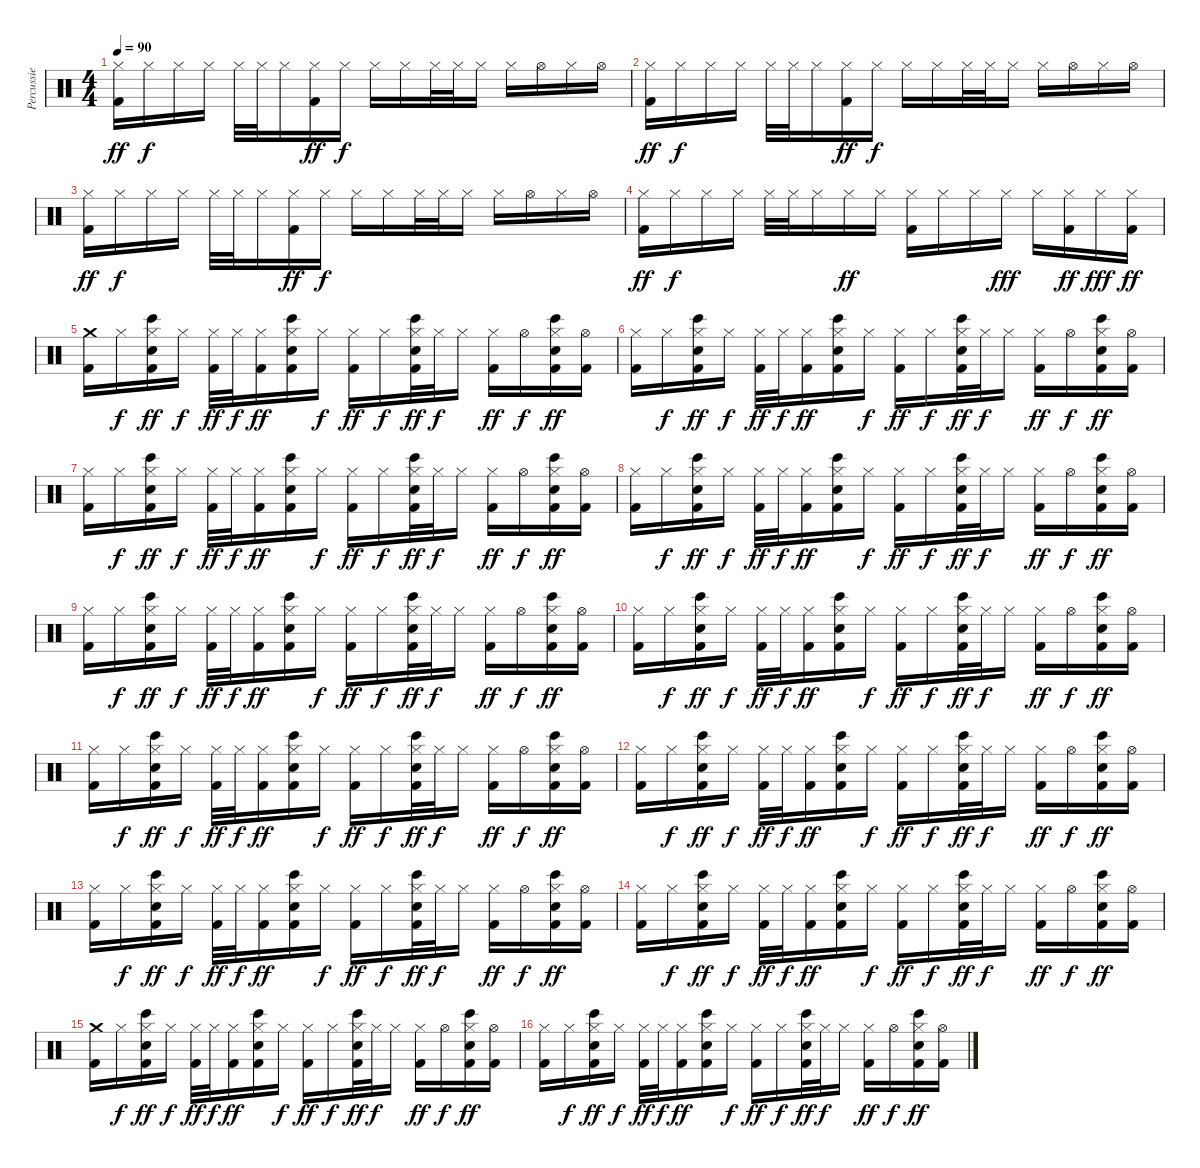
\track ("Percussie" "Percussie") {instrument percussion}
\staff {score}
\articulation defaults
\ts (4 4)
\tempo 90
\clef neutral
\ks c
("Hi-Hat (closed)" "Kick (hit) 2").16{dy ff} "Hi-Hat (closed)".16{dy f} "Hi-Hat (closed)".16 "Hi-Hat (closed)".16 "Hi-Hat (closed)".32 "Hi-Hat (closed)".32 "Hi-Hat (closed)".16 ("Hi-Hat (closed)" "Kick (hit) 2").16{dy ff} "Hi-Hat (closed)".16{dy f} "Hi-Hat (closed)".16 "Hi-Hat (closed)".16 "Hi-Hat (closed)".32 "Hi-Hat (closed)".32 "Hi-Hat (closed)".16 "Hi-Hat (closed)".16 "Hi-Hat (open)".16 "Hi-Hat (closed)".16 "Hi-Hat (open)".16 |
("Hi-Hat (closed)" "Kick (hit) 2").16{dy ff} "Hi-Hat (closed)".16{dy f} "Hi-Hat (closed)".16 "Hi-Hat (closed)".16 "Hi-Hat (closed)".32 "Hi-Hat (closed)".32 "Hi-Hat (closed)".16 ("Hi-Hat (closed)" "Kick (hit) 2").16{dy ff} "Hi-Hat (closed)".16{dy f} "Hi-Hat (closed)".16 "Hi-Hat (closed)".16 "Hi-Hat (closed)".32 "Hi-Hat (closed)".32 "Hi-Hat (closed)".16 "Hi-Hat (closed)".16 "Hi-Hat (open)".16 "Hi-Hat (closed)".16 "Hi-Hat (open)".16 |
("Hi-Hat (closed)" "Kick (hit) 2").16{dy ff} "Hi-Hat (closed)".16{dy f} "Hi-Hat (closed)".16 "Hi-Hat (closed)".16 "Hi-Hat (closed)".32 "Hi-Hat (closed)".32 "Hi-Hat (closed)".16 ("Hi-Hat (closed)" "Kick (hit) 2").16{dy ff} "Hi-Hat (closed)".16{dy f} "Hi-Hat (closed)".16 "Hi-Hat (closed)".16 "Hi-Hat (closed)".32 "Hi-Hat (closed)".32 "Hi-Hat (closed)".16 "Hi-Hat (closed)".16 "Hi-Hat (open)".16 "Hi-Hat (closed)".16 "Hi-Hat (open)".16 |
("Hi-Hat (closed)" "Kick (hit) 2").16{dy ff} "Hi-Hat (closed)".16{dy f} "Hi-Hat (closed)".16 "Hi-Hat (closed)".16 "Hi-Hat (closed)".32 "Hi-Hat (closed)".32 "Hi-Hat (closed)".16 "Hi-Hat (closed)".16{dy ff} "Hi-Hat (closed)".16 ("Hi-Hat (closed)" "Kick (hit) 2").16 "Hi-Hat (closed)".16 "Hi-Hat (closed)".16 "Hi-Hat (closed)".16{dy fff} "Hi-Hat (closed)".16{volume 16} ("Hi-Hat (closed)" "Kick (hit) 2").16{dy ff} "Hi-Hat (closed)".16{dy fff} ("Hi-Hat (closed)" "Kick (hit) 2").16{dy ff} |
("Crash medium (hit)" "Kick (hit) 2").16{volume 14} "Hi-Hat (closed)".16{dy f} ("Hi-Hat (closed)" "Electric Snare (hit)" "Bongo High (hit)" "Kick (hit) 2").16{dy ff} "Hi-Hat (closed)".16{dy f} ("Hi-Hat (closed)" "Kick (hit) 2").32{dy ff} "Hi-Hat (closed)".32{dy f} ("Hi-Hat (closed)" "Kick (hit) 2").16{dy ff} ("Hi-Hat (closed)" "Electric Snare (hit)" "Bongo High (hit)" "Kick (hit) 2").16 "Hi-Hat (closed)".16{dy f} ("Hi-Hat (closed)" "Kick (hit) 2").16{dy ff} "Hi-Hat (closed)".16{dy f} ("Hi-Hat (closed)" "Electric Snare (hit)" "Bongo High (hit)" "Kick (hit) 2").32{dy ff} "Hi-Hat (closed)".32{dy f} "Hi-Hat (closed)".16 ("Hi-Hat (closed)" "Kick (hit) 2").16{dy ff} "Hi-Hat (open)".16{dy f} ("Hi-Hat (closed)" "Electric Snare (hit)" "Bongo High (hit)" "Kick (hit) 2").16{dy ff} ("Hi-Hat (open)" "Kick (hit) 2").16 |
("Hi-Hat (closed)" "Kick (hit) 2").16 "Hi-Hat (closed)".16{dy f} ("Hi-Hat (closed)" "Electric Snare (hit)" "Bongo High (hit)" "Kick (hit) 2").16{dy ff} "Hi-Hat (closed)".16{dy f} ("Hi-Hat (closed)" "Kick (hit) 2").32{dy ff} "Hi-Hat (closed)".32{dy f} ("Hi-Hat (closed)" "Kick (hit) 2").16{dy ff} ("Hi-Hat (closed)" "Electric Snare (hit)" "Bongo High (hit)" "Kick (hit) 2").16 "Hi-Hat (closed)".16{dy f} ("Hi-Hat (closed)" "Kick (hit) 2").16{dy ff} "Hi-Hat (closed)".16{dy f} ("Hi-Hat (closed)" "Electric Snare (hit)" "Bongo High (hit)" "Kick (hit) 2").32{dy ff} "Hi-Hat (closed)".32{dy f} "Hi-Hat (closed)".16 ("Hi-Hat (closed)" "Kick (hit) 2").16{dy ff} "Hi-Hat (open)".16{dy f} ("Hi-Hat (closed)" "Electric Snare (hit)" "Bongo High (hit)" "Kick (hit) 2").16{dy ff} ("Hi-Hat (open)" "Kick (hit) 2").16 |
("Hi-Hat (closed)" "Kick (hit) 2").16 "Hi-Hat (closed)".16{dy f} ("Hi-Hat (closed)" "Electric Snare (hit)" "Bongo High (hit)" "Kick (hit) 2").16{dy ff} "Hi-Hat (closed)".16{dy f} ("Hi-Hat (closed)" "Kick (hit) 2").32{dy ff} "Hi-Hat (closed)".32{dy f} ("Hi-Hat (closed)" "Kick (hit) 2").16{dy ff} ("Hi-Hat (closed)" "Electric Snare (hit)" "Bongo High (hit)" "Kick (hit) 2").16 "Hi-Hat (closed)".16{dy f} ("Hi-Hat (closed)" "Kick (hit) 2").16{dy ff} "Hi-Hat (closed)".16{dy f} ("Hi-Hat (closed)" "Electric Snare (hit)" "Bongo High (hit)" "Kick (hit) 2").32{dy ff} "Hi-Hat (closed)".32{dy f} "Hi-Hat (closed)".16 ("Hi-Hat (closed)" "Kick (hit) 2").16{dy ff} "Hi-Hat (open)".16{dy f} ("Hi-Hat (closed)" "Electric Snare (hit)" "Bongo High (hit)" "Kick (hit) 2").16{dy ff} ("Hi-Hat (open)" "Kick (hit) 2").16 |
("Hi-Hat (closed)" "Kick (hit) 2").16 "Hi-Hat (closed)".16{dy f} ("Hi-Hat (closed)" "Electric Snare (hit)" "Bongo High (hit)" "Kick (hit) 2").16{dy ff} "Hi-Hat (closed)".16{dy f} ("Hi-Hat (closed)" "Kick (hit) 2").32{dy ff} "Hi-Hat (closed)".32{dy f} ("Hi-Hat (closed)" "Kick (hit) 2").16{dy ff} ("Hi-Hat (closed)" "Electric Snare (hit)" "Bongo High (hit)" "Kick (hit) 2").16 "Hi-Hat (closed)".16{dy f} ("Hi-Hat (closed)" "Kick (hit) 2").16{dy ff} "Hi-Hat (closed)".16{dy f} ("Hi-Hat (closed)" "Electric Snare (hit)" "Bongo High (hit)" "Kick (hit) 2").32{dy ff} "Hi-Hat (closed)".32{dy f} "Hi-Hat (closed)".16 ("Hi-Hat (closed)" "Kick (hit) 2").16{dy ff} "Hi-Hat (open)".16{dy f} ("Hi-Hat (closed)" "Electric Snare (hit)" "Bongo High (hit)" "Kick (hit) 2").16{dy ff} ("Hi-Hat (open)" "Kick (hit) 2").16 |
("Hi-Hat (closed)" "Kick (hit) 2").16 "Hi-Hat (closed)".16{dy f} ("Hi-Hat (closed)" "Electric Snare (hit)" "Bongo High (hit)" "Kick (hit) 2").16{dy ff} "Hi-Hat (closed)".16{dy f} ("Hi-Hat (closed)" "Kick (hit) 2").32{dy ff} "Hi-Hat (closed)".32{dy f} ("Hi-Hat (closed)" "Kick (hit) 2").16{dy ff} ("Hi-Hat (closed)" "Electric Snare (hit)" "Bongo High (hit)" "Kick (hit) 2").16 "Hi-Hat (closed)".16{dy f} ("Hi-Hat (closed)" "Kick (hit) 2").16{dy ff} "Hi-Hat (closed)".16{dy f} ("Hi-Hat (closed)" "Electric Snare (hit)" "Bongo High (hit)" "Kick (hit) 2").32{dy ff} "Hi-Hat (closed)".32{dy f} "Hi-Hat (closed)".16 ("Hi-Hat (closed)" "Kick (hit) 2").16{dy ff} "Hi-Hat (open)".16{dy f} ("Hi-Hat (closed)" "Electric Snare (hit)" "Bongo High (hit)" "Kick (hit) 2").16{dy ff} ("Hi-Hat (open)" "Kick (hit) 2").16 |
("Hi-Hat (closed)" "Kick (hit) 2").16 "Hi-Hat (closed)".16{dy f} ("Hi-Hat (closed)" "Electric Snare (hit)" "Bongo High (hit)" "Kick (hit) 2").16{dy ff} "Hi-Hat (closed)".16{dy f} ("Hi-Hat (closed)" "Kick (hit) 2").32{dy ff} "Hi-Hat (closed)".32{dy f} ("Hi-Hat (closed)" "Kick (hit) 2").16{dy ff} ("Hi-Hat (closed)" "Electric Snare (hit)" "Bongo High (hit)" "Kick (hit) 2").16 "Hi-Hat (closed)".16{dy f} ("Hi-Hat (closed)" "Kick (hit) 2").16{dy ff} "Hi-Hat (closed)".16{dy f} ("Hi-Hat (closed)" "Electric Snare (hit)" "Bongo High (hit)" "Kick (hit) 2").32{dy ff} "Hi-Hat (closed)".32{dy f} "Hi-Hat (closed)".16 ("Hi-Hat (closed)" "Kick (hit) 2").16{dy ff} "Hi-Hat (open)".16{dy f} ("Hi-Hat (closed)" "Electric Snare (hit)" "Bongo High (hit)" "Kick (hit) 2").16{dy ff} ("Hi-Hat (open)" "Kick (hit) 2").16 |
("Hi-Hat (closed)" "Kick (hit) 2").16 "Hi-Hat (closed)".16{dy f} ("Hi-Hat (closed)" "Electric Snare (hit)" "Bongo High (hit)" "Kick (hit) 2").16{dy ff} "Hi-Hat (closed)".16{dy f} ("Hi-Hat (closed)" "Kick (hit) 2").32{dy ff} "Hi-Hat (closed)".32{dy f} ("Hi-Hat (closed)" "Kick (hit) 2").16{dy ff} ("Hi-Hat (closed)" "Electric Snare (hit)" "Bongo High (hit)" "Kick (hit) 2").16 "Hi-Hat (closed)".16{dy f} ("Hi-Hat (closed)" "Kick (hit) 2").16{dy ff} "Hi-Hat (closed)".16{dy f} ("Hi-Hat (closed)" "Electric Snare (hit)" "Bongo High (hit)" "Kick (hit) 2").32{dy ff} "Hi-Hat (closed)".32{dy f} "Hi-Hat (closed)".16 ("Hi-Hat (closed)" "Kick (hit) 2").16{dy ff} "Hi-Hat (open)".16{dy f} ("Hi-Hat (closed)" "Electric Snare (hit)" "Bongo High (hit)" "Kick (hit) 2").16{dy ff} ("Hi-Hat (open)" "Kick (hit) 2").16 |
("Hi-Hat (closed)" "Kick (hit) 2").16 "Hi-Hat (closed)".16{dy f} ("Hi-Hat (closed)" "Electric Snare (hit)" "Bongo High (hit)" "Kick (hit) 2").16{dy ff} "Hi-Hat (closed)".16{dy f} ("Hi-Hat (closed)" "Kick (hit) 2").32{dy ff} "Hi-Hat (closed)".32{dy f} ("Hi-Hat (closed)" "Kick (hit) 2").16{dy ff} ("Hi-Hat (closed)" "Electric Snare (hit)" "Bongo High (hit)" "Kick (hit) 2").16 "Hi-Hat (closed)".16{dy f} ("Hi-Hat (closed)" "Kick (hit) 2").16{dy ff} "Hi-Hat (closed)".16{dy f} ("Hi-Hat (closed)" "Electric Snare (hit)" "Bongo High (hit)" "Kick (hit) 2").32{dy ff} "Hi-Hat (closed)".32{dy f} "Hi-Hat (closed)".16 ("Hi-Hat (closed)" "Kick (hit) 2").16{dy ff} "Hi-Hat (open)".16{dy f} ("Hi-Hat (closed)" "Electric Snare (hit)" "Bongo High (hit)" "Kick (hit) 2").16{dy ff} ("Hi-Hat (open)" "Kick (hit) 2").16 |
("Hi-Hat (closed)" "Kick (hit) 2").16 "Hi-Hat (closed)".16{dy f} ("Hi-Hat (closed)" "Electric Snare (hit)" "Bongo High (hit)" "Kick (hit) 2").16{dy ff} "Hi-Hat (closed)".16{dy f} ("Hi-Hat (closed)" "Kick (hit) 2").32{dy ff} "Hi-Hat (closed)".32{dy f} ("Hi-Hat (closed)" "Kick (hit) 2").16{dy ff} ("Hi-Hat (closed)" "Electric Snare (hit)" "Bongo High (hit)" "Kick (hit) 2").16 "Hi-Hat (closed)".16{dy f} ("Hi-Hat (closed)" "Kick (hit) 2").16{dy ff} "Hi-Hat (closed)".16{dy f} ("Hi-Hat (closed)" "Electric Snare (hit)" "Bongo High (hit)" "Kick (hit) 2").32{dy ff} "Hi-Hat (closed)".32{dy f} "Hi-Hat (closed)".16 ("Hi-Hat (closed)" "Kick (hit) 2").16{dy ff} "Hi-Hat (open)".16{dy f} ("Hi-Hat (closed)" "Electric Snare (hit)" "Bongo High (hit)" "Kick (hit) 2").16{dy ff} ("Hi-Hat (open)" "Kick (hit) 2").16 |
("Hi-Hat (closed)" "Kick (hit) 2").16 "Hi-Hat (closed)".16{dy f} ("Hi-Hat (closed)" "Electric Snare (hit)" "Bongo High (hit)" "Kick (hit) 2").16{dy ff} "Hi-Hat (closed)".16{dy f} ("Hi-Hat (closed)" "Kick (hit) 2").32{dy ff} "Hi-Hat (closed)".32{dy f} ("Hi-Hat (closed)" "Kick (hit) 2").16{dy ff} ("Hi-Hat (closed)" "Electric Snare (hit)" "Bongo High (hit)" "Kick (hit) 2").16 "Hi-Hat (closed)".16{dy f} ("Hi-Hat (closed)" "Kick (hit) 2").16{dy ff} "Hi-Hat (closed)".16{dy f} ("Hi-Hat (closed)" "Electric Snare (hit)" "Bongo High (hit)" "Kick (hit) 2").32{dy ff} "Hi-Hat (closed)".32{dy f} "Hi-Hat (closed)".16 ("Hi-Hat (closed)" "Kick (hit) 2").16{dy ff} "Hi-Hat (open)".16{dy f} ("Hi-Hat (closed)" "Electric Snare (hit)" "Bongo High (hit)" "Kick (hit) 2").16{dy ff} ("Hi-Hat (open)" "Kick (hit) 2").16 |
("Crash medium (hit)" "Kick (hit) 2").16{volume 14} "Hi-Hat (closed)".16{dy f} ("Hi-Hat (closed)" "Electric Snare (hit)" "Bongo High (hit)" "Kick (hit) 2").16{dy ff} "Hi-Hat (closed)".16{dy f} ("Hi-Hat (closed)" "Kick (hit) 2").32{dy ff} "Hi-Hat (closed)".32{dy f} ("Hi-Hat (closed)" "Kick (hit) 2").16{dy ff} ("Hi-Hat (closed)" "Electric Snare (hit)" "Bongo High (hit)" "Kick (hit) 2").16 "Hi-Hat (closed)".16{dy f} ("Hi-Hat (closed)" "Kick (hit) 2").16{dy ff} "Hi-Hat (closed)".16{dy f} ("Hi-Hat (closed)" "Electric Snare (hit)" "Bongo High (hit)" "Kick (hit) 2").32{dy ff} "Hi-Hat (closed)".32{dy f} "Hi-Hat (closed)".16 ("Hi-Hat (closed)" "Kick (hit) 2").16{dy ff} "Hi-Hat (open)".16{dy f} ("Hi-Hat (closed)" "Electric Snare (hit)" "Bongo High (hit)" "Kick (hit) 2").16{dy ff} ("Hi-Hat (open)" "Kick (hit) 2").16 |
("Hi-Hat (closed)" "Kick (hit) 2").16 "Hi-Hat (closed)".16{dy f} ("Hi-Hat (closed)" "Electric Snare (hit)" "Bongo High (hit)" "Kick (hit) 2").16{dy ff} "Hi-Hat (closed)".16{dy f} ("Hi-Hat (closed)" "Kick (hit) 2").32{dy ff} "Hi-Hat (closed)".32{dy f} ("Hi-Hat (closed)" "Kick (hit) 2").16{dy ff} ("Hi-Hat (closed)" "Electric Snare (hit)" "Bongo High (hit)" "Kick (hit) 2").16 "Hi-Hat (closed)".16{dy f} ("Hi-Hat (closed)" "Kick (hit) 2").16{dy ff} "Hi-Hat (closed)".16{dy f} ("Hi-Hat (closed)" "Electric Snare (hit)" "Bongo High (hit)" "Kick (hit) 2").32{dy ff} "Hi-Hat (closed)".32{dy f} "Hi-Hat (closed)".16 ("Hi-Hat (closed)" "Kick (hit) 2").16{dy ff} "Hi-Hat (open)".16{dy f} ("Hi-Hat (closed)" "Electric Snare (hit)" "Bongo High (hit)" "Kick (hit) 2").16{dy ff} ("Hi-Hat (open)" "Kick (hit) 2").16
